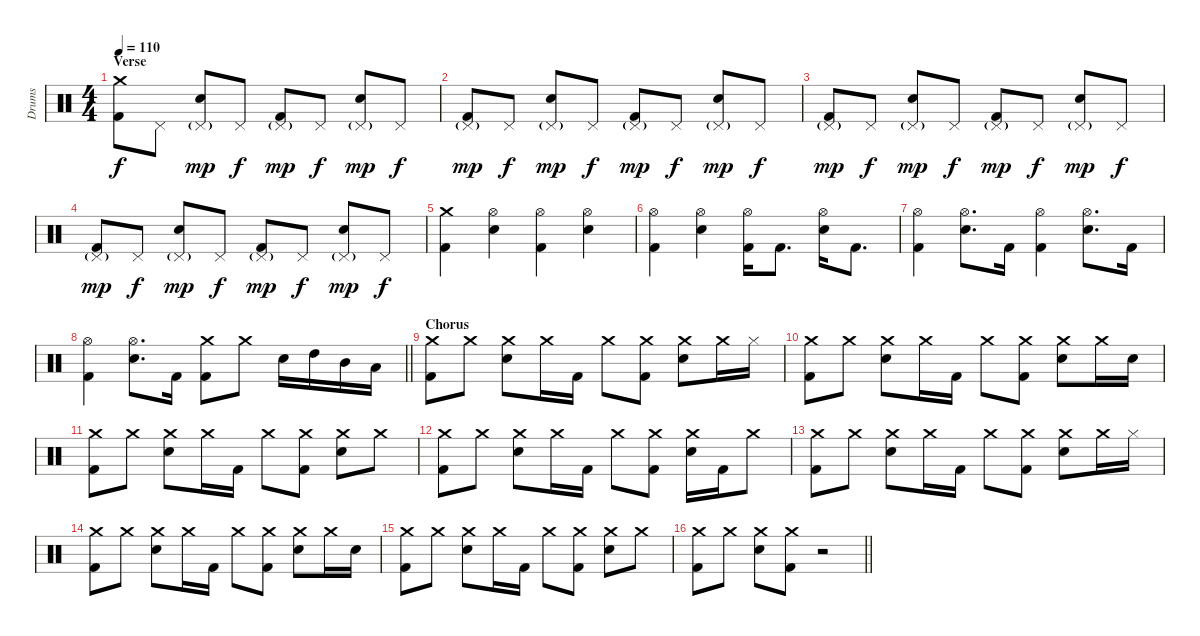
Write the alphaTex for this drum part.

\track ("Drums" "Drums") {instrument percussion}
\staff {score}
\articulation defaults
\ts (4 4)
\section ("" "Verse")
\tempo 110
\clef neutral
\ks c
("Crash medium (hit)" "Kick (hit) 2").8{dy f} "Pedal Hi-Hat (hit)".8 ("Pedal Hi-Hat (hit)"{g} "Electric Snare (hit)").8{dy mp} "Pedal Hi-Hat (hit)".8{dy f} ("Pedal Hi-Hat (hit)"{g} "Kick (hit) 2").8{dy mp} "Pedal Hi-Hat (hit)".8{dy f} ("Pedal Hi-Hat (hit)"{g} "Electric Snare (hit)").8{dy mp} "Pedal Hi-Hat (hit)".8{dy f} |
("Pedal Hi-Hat (hit)"{g} "Kick (hit) 2").8{dy mp} "Pedal Hi-Hat (hit)".8{dy f} ("Pedal Hi-Hat (hit)"{g} "Electric Snare (hit)").8{dy mp} "Pedal Hi-Hat (hit)".8{dy f} ("Pedal Hi-Hat (hit)"{g} "Kick (hit) 2").8{dy mp} "Pedal Hi-Hat (hit)".8{dy f} ("Pedal Hi-Hat (hit)"{g} "Electric Snare (hit)").8{dy mp} "Pedal Hi-Hat (hit)".8{dy f} |
("Pedal Hi-Hat (hit)"{g} "Kick (hit) 2").8{dy mp} "Pedal Hi-Hat (hit)".8{dy f} ("Pedal Hi-Hat (hit)"{g} "Electric Snare (hit)").8{dy mp} "Pedal Hi-Hat (hit)".8{dy f} ("Pedal Hi-Hat (hit)"{g} "Kick (hit) 2").8{dy mp} "Pedal Hi-Hat (hit)".8{dy f} ("Pedal Hi-Hat (hit)"{g} "Electric Snare (hit)").8{dy mp} "Pedal Hi-Hat (hit)".8{dy f} |
("Pedal Hi-Hat (hit)"{g} "Kick (hit) 2").8{dy mp} "Pedal Hi-Hat (hit)".8{dy f} ("Pedal Hi-Hat (hit)"{g} "Electric Snare (hit)").8{dy mp} "Pedal Hi-Hat (hit)".8{dy f} ("Pedal Hi-Hat (hit)"{g} "Kick (hit) 2").8{dy mp} "Pedal Hi-Hat (hit)".8{dy f} ("Pedal Hi-Hat (hit)"{g} "Electric Snare (hit)").8{dy mp} "Pedal Hi-Hat (hit)".8{dy f} |
("Crash medium (hit)" "Kick (hit) 2").4 ("Hi-Hat (open)" "Electric Snare (hit)").4 ("Hi-Hat (open)" "Kick (hit) 2").4 ("Hi-Hat (open)" "Electric Snare (hit)").4 |
("Hi-Hat (open)" "Kick (hit) 2").4 ("Hi-Hat (open)" "Electric Snare (hit)").4 ("Hi-Hat (open)" "Kick (hit) 2").16 "Kick (hit) 2".8{d} ("Hi-Hat (open)" "Electric Snare (hit)").16 "Kick (hit) 2".8{d} |
("Hi-Hat (open)" "Kick (hit) 2").4 ("Hi-Hat (open)" "Electric Snare (hit)").8{d} "Kick (hit) 2".16 ("Hi-Hat (open)" "Kick (hit) 2").4 ("Hi-Hat (open)" "Electric Snare (hit)").8{d} "Kick (hit) 2".16 |
\barLineRight lightlight
("Hi-Hat (open)" "Kick (hit) 2").4 ("Hi-Hat (open)" "Electric Snare (hit)").8{d} "Kick (hit) 2".16 ("Crash medium (hit)" "Kick (hit) 2").8 "Crash medium (hit)".8 "Electric Snare (hit)".16 "High Tom (hit)".16 "Mid Tom (hit)".16 "Low Tom (hit)".16 |
\section ("" "Chorus")
("Crash medium (hit)" "Kick (hit) 2").8 "Crash medium (hit)".8 ("Crash medium (hit)" "Electric Snare (hit)").8 "Crash medium (hit)".16 "Kick (hit) 2".16 "Crash medium (hit)".8 ("Crash medium (hit)" "Kick (hit) 2").8 ("Crash medium (hit)" "Electric Snare (hit)").8 "Crash medium (hit)".16 "Hi-Hat (closed)".16 |
("Crash medium (hit)" "Kick (hit) 2").8 "Crash medium (hit)".8 ("Crash medium (hit)" "Electric Snare (hit)").8 "Crash medium (hit)".16 "Kick (hit) 2".16 "Crash medium (hit)".8 ("Crash medium (hit)" "Kick (hit) 2").8 ("Crash medium (hit)" "Electric Snare (hit)").8 "Crash medium (hit)".16 "Electric Snare (hit)".16 |
("Crash medium (hit)" "Kick (hit) 2").8 "Crash medium (hit)".8 ("Crash medium (hit)" "Electric Snare (hit)").8 "Crash medium (hit)".16 "Kick (hit) 2".16 "Crash medium (hit)".8 ("Crash medium (hit)" "Kick (hit) 2").8 ("Crash medium (hit)" "Electric Snare (hit)").8 "Crash medium (hit)".8 |
("Crash medium (hit)" "Kick (hit) 2").8 "Crash medium (hit)".8 ("Crash medium (hit)" "Electric Snare (hit)").8 "Crash medium (hit)".16 "Kick (hit) 2".16 "Crash medium (hit)".8 ("Crash medium (hit)" "Kick (hit) 2").8 ("Crash medium (hit)" "Electric Snare (hit)").16 "Kick (hit) 2".16 "Crash medium (hit)".8 |
("Crash medium (hit)" "Kick (hit) 2").8 "Crash medium (hit)".8 ("Crash medium (hit)" "Electric Snare (hit)").8 "Crash medium (hit)".16 "Kick (hit) 2".16 "Crash medium (hit)".8 ("Crash medium (hit)" "Kick (hit) 2").8 ("Crash medium (hit)" "Electric Snare (hit)").8 "Crash medium (hit)".16 "Hi-Hat (closed)".16 |
("Crash medium (hit)" "Kick (hit) 2").8 "Crash medium (hit)".8 ("Crash medium (hit)" "Electric Snare (hit)").8 "Crash medium (hit)".16 "Kick (hit) 2".16 "Crash medium (hit)".8 ("Crash medium (hit)" "Kick (hit) 2").8 ("Crash medium (hit)" "Electric Snare (hit)").8 "Crash medium (hit)".16 "Electric Snare (hit)".16 |
("Crash medium (hit)" "Kick (hit) 2").8 "Crash medium (hit)".8 ("Crash medium (hit)" "Electric Snare (hit)").8 "Crash medium (hit)".16 "Kick (hit) 2".16 "Crash medium (hit)".8 ("Crash medium (hit)" "Kick (hit) 2").8 ("Crash medium (hit)" "Electric Snare (hit)").8 "Crash medium (hit)".8 |
\barLineRight lightlight
("Crash medium (hit)" "Kick (hit) 2").8 "Crash medium (hit)".8 ("Crash medium (hit)" "Electric Snare (hit)").8 ("Crash medium (hit)" "Kick (hit) 2").8 r.2
